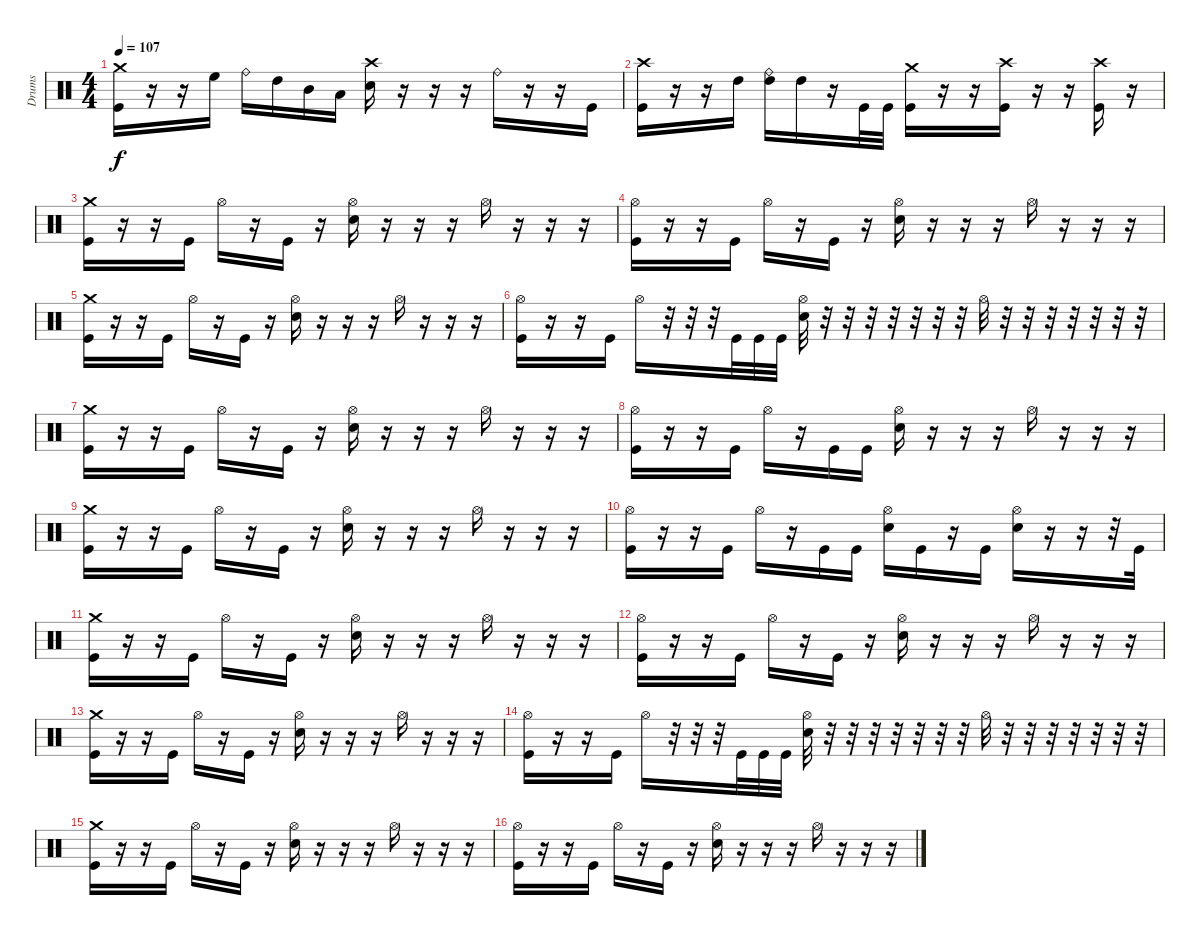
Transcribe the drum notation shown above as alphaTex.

\track ("Drums" "Drums") {instrument percussion}
\staff {score}
\articulation defaults
\ts (4 4)
\tempo 107
\clef neutral
\ks c
("Crash medium (hit)" "Kick (hit)").16{dy f} r.16 r.16 "High Floor Tom (hit)".16 "Ride (bell)".16 "High Tom (hit)".16 "Mid Tom (hit)".16 "Low Tom (hit)".16 ("Crash high (hit)" "Electric Snare (hit)").16 r.16 r.16 r.16 "Ride (bell)".16 r.16 r.16 "Kick (hit)".16 |
("Crash high (hit)" "Kick (hit)").16 r.16 r.16 "High Tom (hit)".16 ("Ride (bell)" "High Tom (hit)").16 "High Tom (hit)".16 r.16 "Kick (hit)".32 "Kick (hit)".32 ("Crash medium (hit)" "Kick (hit)").16 r.16 r.16 ("Crash high (hit)" "Kick (hit)").16 r.16 r.16 ("Crash high (hit)" "Kick (hit)").16 r.16 |
("Crash medium (hit)" "Kick (hit)").16 r.16 r.16 "Kick (hit)".16 "Hi-Hat (open)".16 r.16 "Kick (hit)".16 r.16 ("Hi-Hat (open)" "Electric Snare (hit)").16 r.16 r.16 r.16 "Hi-Hat (open)".16 r.16 r.16 r.16 |
("Hi-Hat (open)" "Kick (hit)").16 r.16 r.16 "Kick (hit)".16 "Hi-Hat (open)".16 r.16 "Kick (hit)".16 r.16 ("Hi-Hat (open)" "Electric Snare (hit)").16 r.16 r.16 r.16 "Hi-Hat (open)".16 r.16 r.16 r.16 |
("Crash medium (hit)" "Kick (hit)").16 r.16 r.16 "Kick (hit)".16 "Hi-Hat (open)".16 r.16 "Kick (hit)".16 r.16 ("Hi-Hat (open)" "Electric Snare (hit)").16 r.16 r.16 r.16 "Hi-Hat (open)".16 r.16 r.16 r.16 |
("Hi-Hat (open)" "Kick (hit)").16 r.16 r.16 "Kick (hit)".16 "Hi-Hat (open)".16 r.32 r.32 r.32 "Kick (hit)".32 "Kick (hit)".32 "Kick (hit)".32 ("Hi-Hat (open)" "Electric Snare (hit)").32 r.32 r.32 r.32 r.32 r.32 r.32 r.32 "Hi-Hat (open)".32 r.32 r.32 r.32 r.32 r.32 r.32 r.32 |
("Crash medium (hit)" "Kick (hit)").16 r.16 r.16 "Kick (hit)".16 "Hi-Hat (open)".16 r.16 "Kick (hit)".16 r.16 ("Hi-Hat (open)" "Electric Snare (hit)").16 r.16 r.16 r.16 "Hi-Hat (open)".16 r.16 r.16 r.16 |
("Hi-Hat (open)" "Kick (hit)").16 r.16 r.16 "Kick (hit)".16 "Hi-Hat (open)".16 r.16 "Kick (hit)".16 "Kick (hit)".16 ("Hi-Hat (open)" "Electric Snare (hit)").16 r.16 r.16 r.16 "Hi-Hat (open)".16 r.16 r.16 r.16 |
("Crash medium (hit)" "Kick (hit)").16 r.16 r.16 "Kick (hit)".16 "Hi-Hat (open)".16 r.16 "Kick (hit)".16 r.16 ("Hi-Hat (open)" "Electric Snare (hit)").16 r.16 r.16 r.16 "Hi-Hat (open)".16 r.16 r.16 r.16 |
("Hi-Hat (open)" "Kick (hit)").16 r.16 r.16 "Kick (hit)".16 "Hi-Hat (open)".16 r.16 "Kick (hit)".16 "Kick (hit)".16 ("Hi-Hat (open)" "Electric Snare (hit)").16 "Kick (hit)".16 r.16 "Kick (hit)".16 ("Hi-Hat (open)" "Electric Snare (hit)").16 r.16 r.16 r.32 "Kick (hit)".32 |
("Crash medium (hit)" "Kick (hit)").16 r.16 r.16 "Kick (hit)".16 "Hi-Hat (open)".16 r.16 "Kick (hit)".16 r.16 ("Hi-Hat (open)" "Electric Snare (hit)").16 r.16 r.16 r.16 "Hi-Hat (open)".16 r.16 r.16 r.16 |
("Hi-Hat (open)" "Kick (hit)").16 r.16 r.16 "Kick (hit)".16 "Hi-Hat (open)".16 r.16 "Kick (hit)".16 r.16 ("Hi-Hat (open)" "Electric Snare (hit)").16 r.16 r.16 r.16 "Hi-Hat (open)".16 r.16 r.16 r.16 |
("Crash medium (hit)" "Kick (hit)").16 r.16 r.16 "Kick (hit)".16 "Hi-Hat (open)".16 r.16 "Kick (hit)".16 r.16 ("Hi-Hat (open)" "Electric Snare (hit)").16 r.16 r.16 r.16 "Hi-Hat (open)".16 r.16 r.16 r.16 |
("Hi-Hat (open)" "Kick (hit)").16 r.16 r.16 "Kick (hit)".16 "Hi-Hat (open)".16 r.32 r.32 r.32 "Kick (hit)".32 "Kick (hit)".32 "Kick (hit)".32 ("Hi-Hat (open)" "Electric Snare (hit)").32 r.32 r.32 r.32 r.32 r.32 r.32 r.32 "Hi-Hat (open)".32 r.32 r.32 r.32 r.32 r.32 r.32 r.32 |
("Crash medium (hit)" "Kick (hit)").16 r.16 r.16 "Kick (hit)".16 "Hi-Hat (open)".16 r.16 "Kick (hit)".16 r.16 ("Hi-Hat (open)" "Electric Snare (hit)").16 r.16 r.16 r.16 "Hi-Hat (open)".16 r.16 r.16 r.16 |
("Hi-Hat (open)" "Kick (hit)").16 r.16 r.16 "Kick (hit)".16 "Hi-Hat (open)".16 r.16 "Kick (hit)".16 r.16 ("Hi-Hat (open)" "Electric Snare (hit)").16 r.16 r.16 r.16 "Hi-Hat (open)".16 r.16 r.16 r.16
